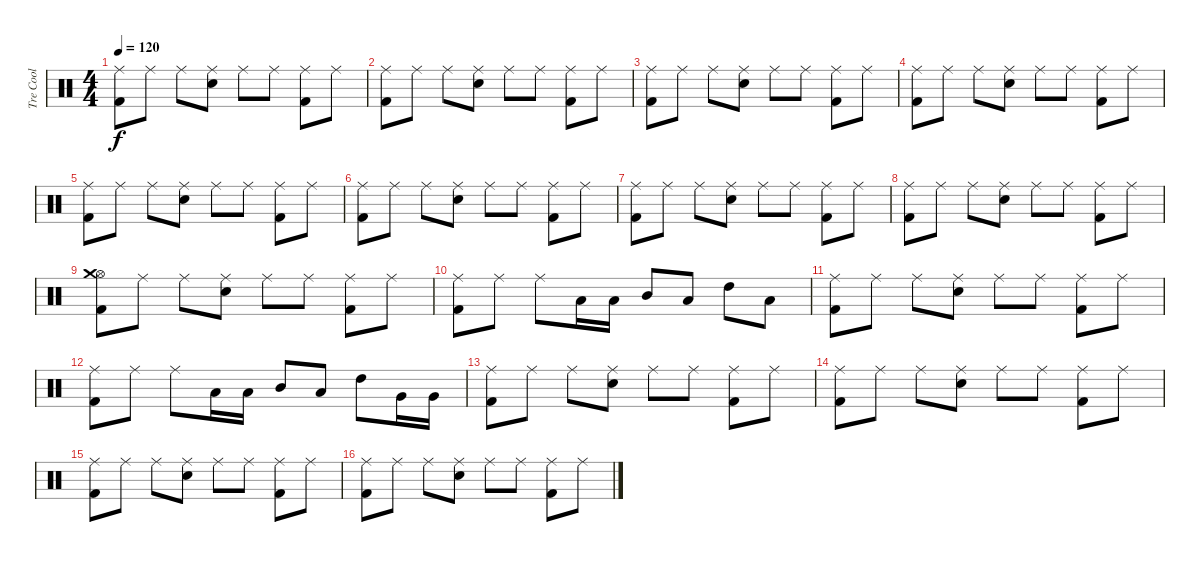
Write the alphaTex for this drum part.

\track ("Tre Cool" "Tre Cool") {instrument percussion}
\staff {score}
\articulation defaults
\ts (4 4)
\tempo 120
\clef neutral
\ks c
("Ride (middle)" "Kick (hit) 2").8{dy f} "Ride (middle)".8 "Ride (middle)".8 ("Ride (middle)" "Snare (hit) 2").8 "Ride (middle)".8 "Ride (middle)".8 ("Ride (middle)" "Kick (hit) 2").8 "Ride (middle)".8 |
("Ride (middle)" "Kick (hit) 2").8 "Ride (middle)".8 "Ride (middle)".8 ("Ride (middle)" "Snare (hit) 2").8 "Ride (middle)".8 "Ride (middle)".8 ("Ride (middle)" "Kick (hit) 2").8 "Ride (middle)".8 |
("Ride (middle)" "Kick (hit) 2").8 "Ride (middle)".8 "Ride (middle)".8 ("Ride (middle)" "Snare (hit) 2").8 "Ride (middle)".8 "Ride (middle)".8 ("Ride (middle)" "Kick (hit) 2").8 "Ride (middle)".8 |
("Ride (middle)" "Kick (hit) 2").8 "Ride (middle)".8 "Ride (middle)".8 ("Ride (middle)" "Snare (hit) 2").8 "Ride (middle)".8 "Ride (middle)".8 ("Ride (middle)" "Kick (hit) 2").8 "Ride (middle)".8 |
("Ride (middle)" "Kick (hit) 2").8 "Ride (middle)".8 "Ride (middle)".8 ("Ride (middle)" "Snare (hit) 2").8 "Ride (middle)".8 "Ride (middle)".8 ("Ride (middle)" "Kick (hit) 2").8 "Ride (middle)".8 |
("Ride (middle)" "Kick (hit) 2").8 "Ride (middle)".8 "Ride (middle)".8 ("Ride (middle)" "Snare (hit) 2").8 "Ride (middle)".8 "Ride (middle)".8 ("Ride (middle)" "Kick (hit) 2").8 "Ride (middle)".8 |
("Ride (middle)" "Kick (hit) 2").8 "Ride (middle)".8 "Ride (middle)".8 ("Ride (middle)" "Snare (hit) 2").8 "Ride (middle)".8 "Ride (middle)".8 ("Ride (middle)" "Kick (hit) 2").8 "Ride (middle)".8 |
("Ride (middle)" "Kick (hit) 2").8 "Ride (middle)".8 "Ride (middle)".8 ("Ride (middle)" "Snare (hit) 2").8 "Ride (middle)".8 "Ride (middle)".8 ("Ride (middle)" "Kick (hit) 2").8 "Ride (middle)".8 |
("Hi-Hat (open)" "Crash medium (hit)" "Kick (hit) 2").8 "Ride (middle)".8 "Ride (middle)".8 ("Ride (middle)" "Snare (hit) 2").8 "Ride (middle)".8 "Ride (middle)".8 ("Ride (middle)" "Kick (hit) 2").8 "Ride (middle)".8 |
("Ride (middle)" "Kick (hit) 2").8 "Ride (middle)".8 "Ride (middle)".8 "Low Tom (hit)".16 "Low Tom (hit)".16 "Mid Tom (hit)".8 "Low Tom (hit)".8 "High Tom (hit)".8 "Low Floor Tom (hit)".8 |
("Ride (middle)" "Kick (hit) 2").8 "Ride (middle)".8 "Ride (middle)".8 ("Ride (middle)" "Snare (hit) 2").8 "Ride (middle)".8 "Ride (middle)".8 ("Ride (middle)" "Kick (hit) 2").8 "Ride (middle)".8 |
("Ride (middle)" "Kick (hit) 2").8 "Ride (middle)".8 "Ride (middle)".8 "Low Tom (hit)".16 "Low Tom (hit)".16 "Mid Tom (hit)".8 "Low Tom (hit)".8 "High Tom (hit)".8 "Very Low Tom (hit)".16 "Very Low Tom (hit)".16 |
("Ride (middle)" "Kick (hit) 2").8 "Ride (middle)".8 "Ride (middle)".8 ("Ride (middle)" "Snare (hit) 2").8 "Ride (middle)".8 "Ride (middle)".8 ("Ride (middle)" "Kick (hit) 2").8 "Ride (middle)".8 |
("Ride (middle)" "Kick (hit) 2").8 "Ride (middle)".8 "Ride (middle)".8 ("Ride (middle)" "Snare (hit) 2").8 "Ride (middle)".8 "Ride (middle)".8 ("Ride (middle)" "Kick (hit) 2").8 "Ride (middle)".8 |
("Ride (middle)" "Kick (hit) 2").8 "Ride (middle)".8 "Ride (middle)".8 ("Ride (middle)" "Snare (hit) 2").8 "Ride (middle)".8 "Ride (middle)".8 ("Ride (middle)" "Kick (hit) 2").8 "Ride (middle)".8 |
("Ride (middle)" "Kick (hit) 2").8 "Ride (middle)".8 "Ride (middle)".8 ("Ride (middle)" "Snare (hit) 2").8 "Ride (middle)".8 "Ride (middle)".8 ("Ride (middle)" "Kick (hit) 2").8 "Ride (middle)".8
